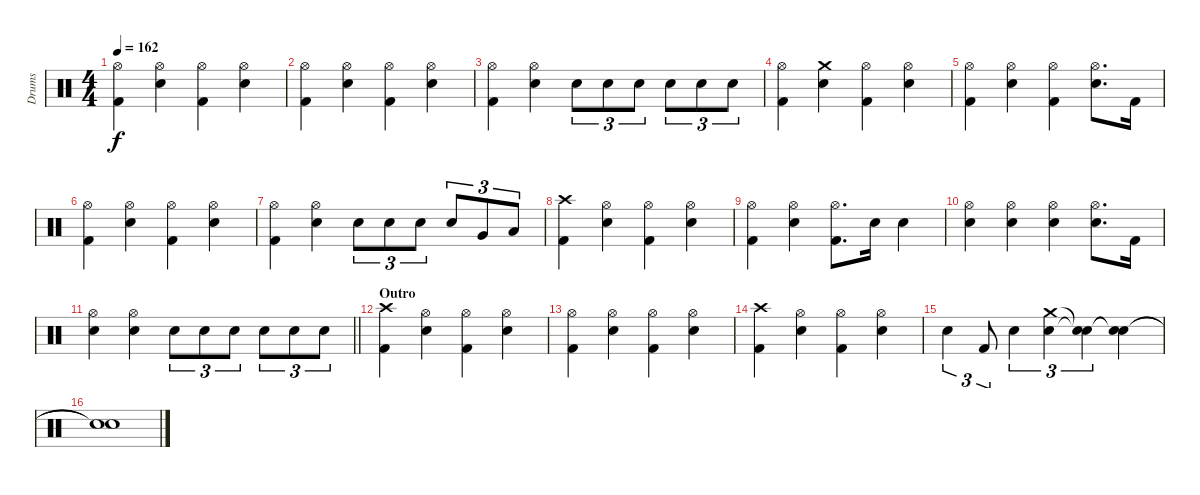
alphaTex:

\track ("Drums" "Drums") {instrument percussion}
\staff {score}
\articulation defaults
\ts (4 4)
\tempo 162
\clef neutral
\ks c
("Hi-Hat (open)" "Kick (hit) 2").4{dy f} ("Hi-Hat (open)" "Electric Snare (hit)").4 ("Hi-Hat (open)" "Kick (hit) 2").4 ("Hi-Hat (open)" "Electric Snare (hit)").4 |
("Hi-Hat (open)" "Kick (hit) 2").4 ("Hi-Hat (open)" "Electric Snare (hit)").4 ("Hi-Hat (open)" "Kick (hit) 2").4 ("Hi-Hat (open)" "Electric Snare (hit)").4 |
("Hi-Hat (open)" "Kick (hit) 2").4 ("Hi-Hat (open)" "Electric Snare (hit)").4 "Electric Snare (hit)".8{tu (3 2)} "Electric Snare (hit)".8{tu (3 2)} "Electric Snare (hit)".8{tu (3 2)} "Electric Snare (hit)".8{tu (3 2)} "Electric Snare (hit)".8{tu (3 2)} "Electric Snare (hit)".8{tu (3 2)} |
("Hi-Hat (open)" "Kick (hit) 2").4 ("Crash medium (hit)" "Electric Snare (hit)").4 ("Hi-Hat (open)" "Kick (hit) 2").4 ("Hi-Hat (open)" "Electric Snare (hit)").4 |
("Hi-Hat (open)" "Kick (hit) 2").4 ("Hi-Hat (open)" "Electric Snare (hit)").4 ("Hi-Hat (open)" "Kick (hit) 2").4 ("Hi-Hat (open)" "Electric Snare (hit)").8{d} "Kick (hit) 2".16 |
("Hi-Hat (open)" "Kick (hit) 2").4 ("Hi-Hat (open)" "Electric Snare (hit)").4 ("Hi-Hat (open)" "Kick (hit) 2").4 ("Hi-Hat (open)" "Electric Snare (hit)").4 |
("Hi-Hat (open)" "Kick (hit) 2").4 ("Hi-Hat (open)" "Electric Snare (hit)").4 "Electric Snare (hit)".8{tu (3 2)} "Electric Snare (hit)".8{tu (3 2)} "Electric Snare (hit)".8{tu (3 2)} "Electric Snare (hit)".8{tu (3 2)} "Very Low Tom (hit)".8{tu (3 2)} "Low Floor Tom (hit)".8{tu (3 2)} |
("Crash high (hit)" "Kick (hit) 2").4 ("Hi-Hat (open)" "Electric Snare (hit)").4 ("Hi-Hat (open)" "Kick (hit) 2").4 ("Hi-Hat (open)" "Electric Snare (hit)").4 |
("Hi-Hat (open)" "Kick (hit) 2").4 ("Hi-Hat (open)" "Electric Snare (hit)").4 ("Hi-Hat (open)" "Kick (hit) 2").8{d} "Electric Snare (hit)".16 "Electric Snare (hit)".4 |
("Hi-Hat (open)" "Electric Snare (hit)").4 ("Hi-Hat (open)" "Electric Snare (hit)").4 ("Hi-Hat (open)" "Electric Snare (hit)").4 ("Hi-Hat (open)" "Electric Snare (hit)").8{d} "Kick (hit) 2".16 |
\barLineRight lightlight
("Hi-Hat (open)" "Electric Snare (hit)").4 ("Hi-Hat (open)" "Electric Snare (hit)").4 "Electric Snare (hit)".8{tu (3 2)} "Electric Snare (hit)".8{tu (3 2)} "Electric Snare (hit)".8{tu (3 2)} "Electric Snare (hit)".8{tu (3 2)} "Electric Snare (hit)".8{tu (3 2)} "Electric Snare (hit)".8{tu (3 2)} |
\section ("" "Outro")
("Crash high (hit)" "Kick (hit) 2").4 ("Hi-Hat (open)" "Electric Snare (hit)").4 ("Hi-Hat (open)" "Kick (hit) 2").4 ("Hi-Hat (open)" "Electric Snare (hit)").4 |
("Hi-Hat (open)" "Kick (hit) 2").4 ("Hi-Hat (open)" "Electric Snare (hit)").4 ("Hi-Hat (open)" "Kick (hit) 2").4 ("Hi-Hat (open)" "Electric Snare (hit)").4 |
("Crash high (hit)" "Kick (hit) 2").4 ("Hi-Hat (open)" "Electric Snare (hit)").4 ("Hi-Hat (open)" "Kick (hit) 2").4 ("Hi-Hat (open)" "Electric Snare (hit)").4 |
"Electric Snare (hit)".4{tu (3 2)} "Kick (hit) 2".8{tu (3 2)} "Electric Snare (hit)".4{tu (3 2)} ("Crash medium (hit)" "Electric Snare (hit)").4{tu (3 2)} ("Snare (hit)"{t} "Snare (hit)"{t}).4{tu (3 2)} ("Snare (hit)"{t} "Snare (hit)"{t}).4 |
("Snare (hit)"{t} "Snare (hit)"{t}).1
